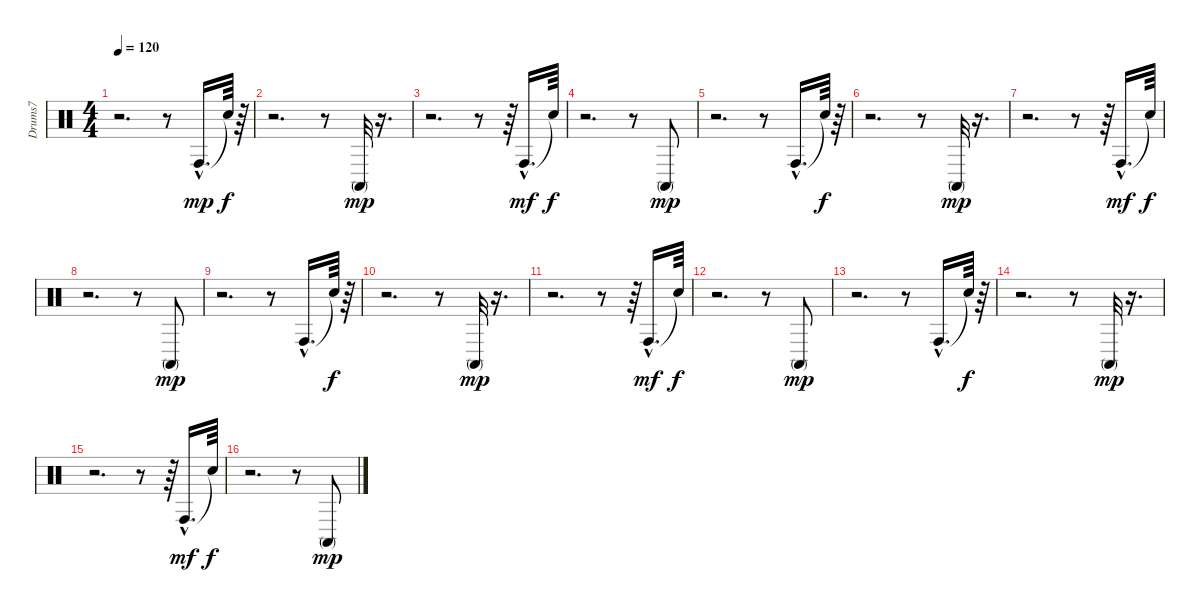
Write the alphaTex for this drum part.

\track ("Drums7" "Drums7") {instrument percussion}
\staff {score}
\articulation defaults
\ts (4 4)
\tempo 120
\clef neutral
\ks c
r.2{d dy mp} r.8 "Conga high (hit)"{hac}.16{d} "Snare (hit)"{t}.64{dy f} r.64 |
r.2{d} r.8 "Conga high (mute)".32{dy mp} r.16{d} |
r.2{d} r.8 r.64 "Conga high (hit)"{hac}.16{d dy mf} "Snare (hit)"{t}.64{dy f} |
r.2{d} r.8 "Conga high (mute)".8{dy mp} |
r.2{d} r.8 "Conga high (hit)"{hac}.16{d} "Snare (hit)"{t}.64{dy f} r.64 |
r.2{d} r.8 "Conga high (mute)".32{dy mp} r.16{d} |
r.2{d} r.8 r.64 "Conga high (hit)"{hac}.16{d dy mf} "Snare (hit)"{t}.64{dy f} |
r.2{d} r.8 "Conga high (mute)".8{dy mp} |
r.2{d} r.8 "Conga high (hit)"{hac}.16{d} "Snare (hit)"{t}.64{dy f} r.64 |
r.2{d} r.8 "Conga high (mute)".32{dy mp} r.16{d} |
r.2{d} r.8 r.64 "Conga high (hit)"{hac}.16{d dy mf} "Snare (hit)"{t}.64{dy f} |
r.2{d} r.8 "Conga high (mute)".8{dy mp} |
r.2{d} r.8 "Conga high (hit)"{hac}.16{d} "Snare (hit)"{t}.64{dy f} r.64 |
r.2{d} r.8 "Conga high (mute)".32{dy mp} r.16{d} |
r.2{d} r.8 r.64 "Conga high (hit)"{hac}.16{d dy mf} "Snare (hit)"{t}.64{dy f} |
r.2{d} r.8 "Conga high (mute)".8{dy mp}
